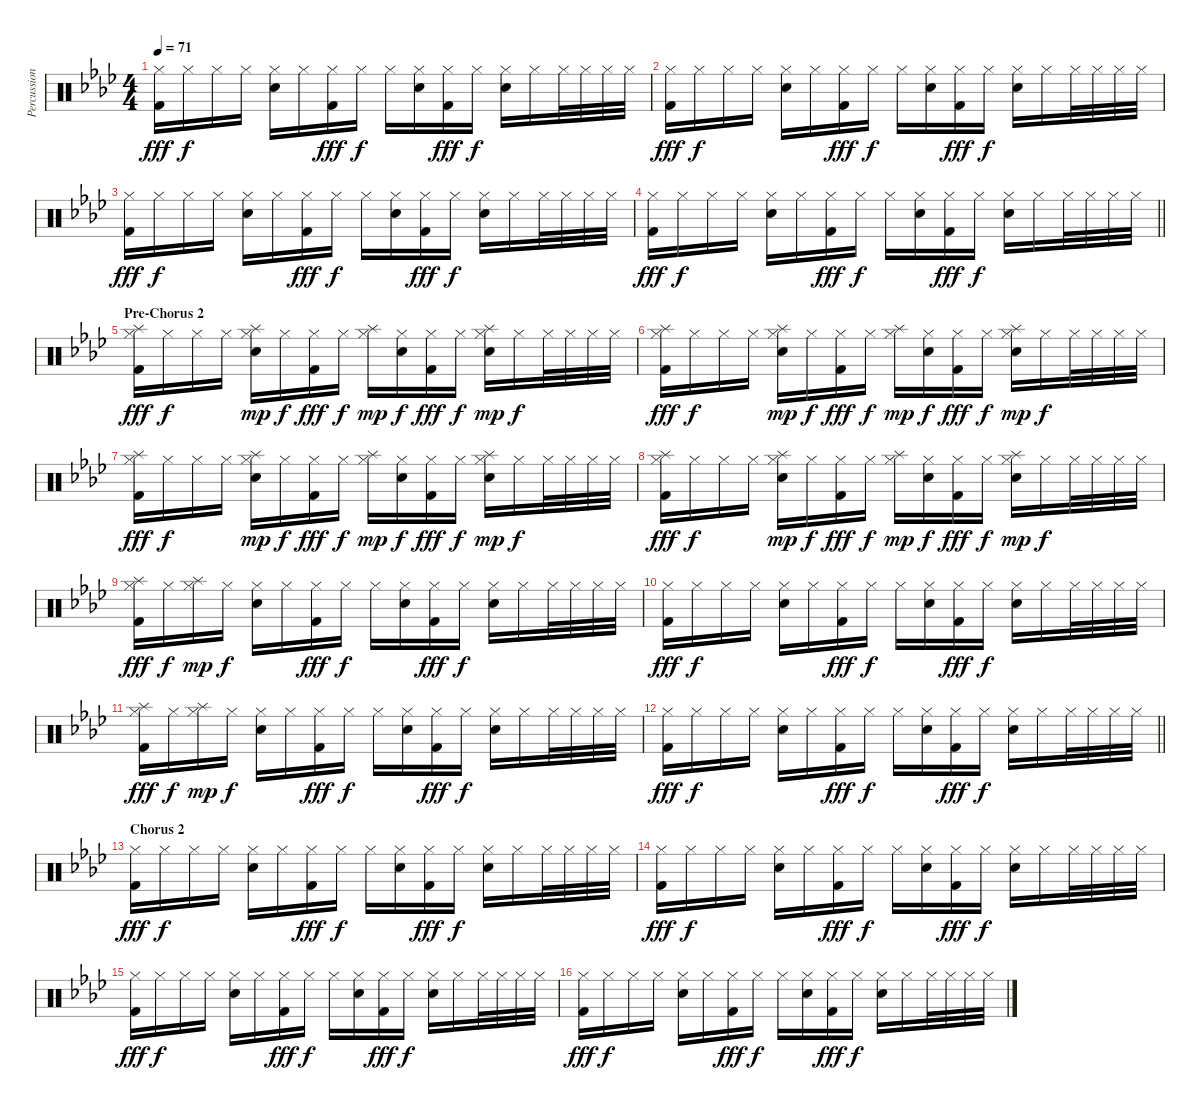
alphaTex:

\track ("Percussion" "Percussion") {instrument percussion}
\staff {score}
\articulation defaults
\ts (4 4)
\tempo 71
\clef neutral
\ks ab
("Hi-Hat (closed)" "Kick (hit) 2").16{dy fff} "Hi-Hat (closed)".16{dy f} "Hi-Hat (closed)".16 "Hi-Hat (closed)".16 ("Hi-Hat (closed)" "Snare (hit) 2").16 "Hi-Hat (closed)".16 ("Hi-Hat (closed)" "Kick (hit) 2").16{dy fff} "Hi-Hat (closed)".16{dy f} "Hi-Hat (closed)".16 ("Hi-Hat (closed)" "Snare (hit) 2").16 ("Hi-Hat (closed)" "Kick (hit) 2").16{dy fff} "Hi-Hat (closed)".16{dy f} ("Hi-Hat (closed)" "Snare (hit) 2").16 "Hi-Hat (closed)".16 "Hi-Hat (closed)".32 "Hi-Hat (closed)".32 "Hi-Hat (closed)".32 "Hi-Hat (closed)".32 |
("Hi-Hat (closed)" "Kick (hit) 2").16{dy fff} "Hi-Hat (closed)".16{dy f} "Hi-Hat (closed)".16 "Hi-Hat (closed)".16 ("Hi-Hat (closed)" "Snare (hit) 2").16 "Hi-Hat (closed)".16 ("Hi-Hat (closed)" "Kick (hit) 2").16{dy fff} "Hi-Hat (closed)".16{dy f} "Hi-Hat (closed)".16 ("Hi-Hat (closed)" "Snare (hit) 2").16 ("Hi-Hat (closed)" "Kick (hit) 2").16{dy fff} "Hi-Hat (closed)".16{dy f} ("Hi-Hat (closed)" "Snare (hit) 2").16 "Hi-Hat (closed)".16 "Hi-Hat (closed)".32 "Hi-Hat (closed)".32 "Hi-Hat (closed)".32 "Hi-Hat (closed)".32 |
("Hi-Hat (closed)" "Kick (hit) 2").16{dy fff} "Hi-Hat (closed)".16{dy f} "Hi-Hat (closed)".16 "Hi-Hat (closed)".16 ("Hi-Hat (closed)" "Snare (hit) 2").16 "Hi-Hat (closed)".16 ("Hi-Hat (closed)" "Kick (hit) 2").16{dy fff} "Hi-Hat (closed)".16{dy f} "Hi-Hat (closed)".16 ("Hi-Hat (closed)" "Snare (hit) 2").16 ("Hi-Hat (closed)" "Kick (hit) 2").16{dy fff} "Hi-Hat (closed)".16{dy f} ("Hi-Hat (closed)" "Snare (hit) 2").16 "Hi-Hat (closed)".16 "Hi-Hat (closed)".32 "Hi-Hat (closed)".32 "Hi-Hat (closed)".32 "Hi-Hat (closed)".32 |
\barLineRight lightlight
("Hi-Hat (closed)" "Kick (hit) 2").16{dy fff} "Hi-Hat (closed)".16{dy f} "Hi-Hat (closed)".16 "Hi-Hat (closed)".16 ("Hi-Hat (closed)" "Snare (hit) 2").16 "Hi-Hat (closed)".16 ("Hi-Hat (closed)" "Kick (hit) 2").16{dy fff} "Hi-Hat (closed)".16{dy f} "Hi-Hat (closed)".16 ("Hi-Hat (closed)" "Snare (hit) 2").16 ("Hi-Hat (closed)" "Kick (hit) 2").16{dy fff} "Hi-Hat (closed)".16{dy f} ("Hi-Hat (closed)" "Snare (hit) 2").16 "Hi-Hat (closed)".16 "Hi-Hat (closed)".32 "Hi-Hat (closed)".32 "Hi-Hat (closed)".32 "Hi-Hat (closed)".32 |
\section ("" "Pre-Chorus 2")
("Splash (hit)" "Hi-Hat (closed)" "Kick (hit) 2").16{dy fff} "Hi-Hat (closed)".16{dy f} "Hi-Hat (closed)".16 "Hi-Hat (closed)".16 ("Splash (hit)" "Hi-Hat (closed)" "Snare (hit) 2").16{dy mp} "Hi-Hat (closed)".16{dy f} ("Hi-Hat (closed)" "Kick (hit) 2").16{dy fff} "Hi-Hat (closed)".16{dy f} ("Splash (hit)" "Hi-Hat (closed)").16{dy mp} ("Hi-Hat (closed)" "Snare (hit) 2").16{dy f} ("Hi-Hat (closed)" "Kick (hit) 2").16{dy fff} "Hi-Hat (closed)".16{dy f} ("Splash (hit)" "Hi-Hat (closed)" "Snare (hit) 2").16{dy mp} "Hi-Hat (closed)".16{dy f} "Hi-Hat (closed)".32 "Hi-Hat (closed)".32 "Hi-Hat (closed)".32 "Hi-Hat (closed)".32 |
("Splash (hit)" "Hi-Hat (closed)" "Kick (hit) 2").16{dy fff} "Hi-Hat (closed)".16{dy f} "Hi-Hat (closed)".16 "Hi-Hat (closed)".16 ("Splash (hit)" "Hi-Hat (closed)" "Snare (hit) 2").16{dy mp} "Hi-Hat (closed)".16{dy f} ("Hi-Hat (closed)" "Kick (hit) 2").16{dy fff} "Hi-Hat (closed)".16{dy f} ("Splash (hit)" "Hi-Hat (closed)").16{dy mp} ("Hi-Hat (closed)" "Snare (hit) 2").16{dy f} ("Hi-Hat (closed)" "Kick (hit) 2").16{dy fff} "Hi-Hat (closed)".16{dy f} ("Splash (hit)" "Hi-Hat (closed)" "Snare (hit) 2").16{dy mp} "Hi-Hat (closed)".16{dy f} "Hi-Hat (closed)".32 "Hi-Hat (closed)".32 "Hi-Hat (closed)".32 "Hi-Hat (closed)".32 |
("Splash (hit)" "Hi-Hat (closed)" "Kick (hit) 2").16{dy fff} "Hi-Hat (closed)".16{dy f} "Hi-Hat (closed)".16 "Hi-Hat (closed)".16 ("Splash (hit)" "Hi-Hat (closed)" "Snare (hit) 2").16{dy mp} "Hi-Hat (closed)".16{dy f} ("Hi-Hat (closed)" "Kick (hit) 2").16{dy fff} "Hi-Hat (closed)".16{dy f} ("Splash (hit)" "Hi-Hat (closed)").16{dy mp} ("Hi-Hat (closed)" "Snare (hit) 2").16{dy f} ("Hi-Hat (closed)" "Kick (hit) 2").16{dy fff} "Hi-Hat (closed)".16{dy f} ("Splash (hit)" "Hi-Hat (closed)" "Snare (hit) 2").16{dy mp} "Hi-Hat (closed)".16{dy f} "Hi-Hat (closed)".32 "Hi-Hat (closed)".32 "Hi-Hat (closed)".32 "Hi-Hat (closed)".32 |
("Splash (hit)" "Hi-Hat (closed)" "Kick (hit) 2").16{dy fff} "Hi-Hat (closed)".16{dy f} "Hi-Hat (closed)".16 "Hi-Hat (closed)".16 ("Splash (hit)" "Hi-Hat (closed)" "Snare (hit) 2").16{dy mp} "Hi-Hat (closed)".16{dy f} ("Hi-Hat (closed)" "Kick (hit) 2").16{dy fff} "Hi-Hat (closed)".16{dy f} ("Splash (hit)" "Hi-Hat (closed)").16{dy mp} ("Hi-Hat (closed)" "Snare (hit) 2").16{dy f} ("Hi-Hat (closed)" "Kick (hit) 2").16{dy fff} "Hi-Hat (closed)".16{dy f} ("Splash (hit)" "Hi-Hat (closed)" "Snare (hit) 2").16{dy mp} "Hi-Hat (closed)".16{dy f} "Hi-Hat (closed)".32 "Hi-Hat (closed)".32 "Hi-Hat (closed)".32 "Hi-Hat (closed)".32 |
("Splash (hit)" "Hi-Hat (closed)" "Kick (hit) 2").16{dy fff} "Hi-Hat (closed)".16{dy f} ("Splash (hit)" "Hi-Hat (closed)").16{dy mp} "Hi-Hat (closed)".16{dy f} ("Hi-Hat (closed)" "Snare (hit) 2").16 "Hi-Hat (closed)".16 ("Hi-Hat (closed)" "Kick (hit) 2").16{dy fff} "Hi-Hat (closed)".16{dy f} "Hi-Hat (closed)".16 ("Hi-Hat (closed)" "Snare (hit) 2").16 ("Hi-Hat (closed)" "Kick (hit) 2").16{dy fff} "Hi-Hat (closed)".16{dy f} ("Hi-Hat (closed)" "Snare (hit) 2").16 "Hi-Hat (closed)".16 "Hi-Hat (closed)".32 "Hi-Hat (closed)".32 "Hi-Hat (closed)".32 "Hi-Hat (closed)".32 |
("Hi-Hat (closed)" "Kick (hit) 2").16{dy fff} "Hi-Hat (closed)".16{dy f} "Hi-Hat (closed)".16 "Hi-Hat (closed)".16 ("Hi-Hat (closed)" "Snare (hit) 2").16 "Hi-Hat (closed)".16 ("Hi-Hat (closed)" "Kick (hit) 2").16{dy fff} "Hi-Hat (closed)".16{dy f} "Hi-Hat (closed)".16 ("Hi-Hat (closed)" "Snare (hit) 2").16 ("Hi-Hat (closed)" "Kick (hit) 2").16{dy fff} "Hi-Hat (closed)".16{dy f} ("Hi-Hat (closed)" "Snare (hit) 2").16 "Hi-Hat (closed)".16 "Hi-Hat (closed)".32 "Hi-Hat (closed)".32 "Hi-Hat (closed)".32 "Hi-Hat (closed)".32 |
("Splash (hit)" "Hi-Hat (closed)" "Kick (hit) 2").16{dy fff} "Hi-Hat (closed)".16{dy f} ("Splash (hit)" "Hi-Hat (closed)").16{dy mp} "Hi-Hat (closed)".16{dy f} ("Hi-Hat (closed)" "Snare (hit) 2").16 "Hi-Hat (closed)".16 ("Hi-Hat (closed)" "Kick (hit) 2").16{dy fff} "Hi-Hat (closed)".16{dy f} "Hi-Hat (closed)".16 ("Hi-Hat (closed)" "Snare (hit) 2").16 ("Hi-Hat (closed)" "Kick (hit) 2").16{dy fff} "Hi-Hat (closed)".16{dy f} ("Hi-Hat (closed)" "Snare (hit) 2").16 "Hi-Hat (closed)".16 "Hi-Hat (closed)".32 "Hi-Hat (closed)".32 "Hi-Hat (closed)".32 "Hi-Hat (closed)".32 |
\barLineRight lightlight
("Hi-Hat (closed)" "Kick (hit) 2").16{dy fff} "Hi-Hat (closed)".16{dy f} "Hi-Hat (closed)".16 "Hi-Hat (closed)".16 ("Hi-Hat (closed)" "Snare (hit) 2").16 "Hi-Hat (closed)".16 ("Hi-Hat (closed)" "Kick (hit) 2").16{dy fff} "Hi-Hat (closed)".16{dy f} "Hi-Hat (closed)".16 ("Hi-Hat (closed)" "Snare (hit) 2").16 ("Hi-Hat (closed)" "Kick (hit) 2").16{dy fff} "Hi-Hat (closed)".16{dy f} ("Hi-Hat (closed)" "Snare (hit) 2").16 "Hi-Hat (closed)".16 "Hi-Hat (closed)".32 "Hi-Hat (closed)".32 "Hi-Hat (closed)".32 "Hi-Hat (closed)".32 |
\section ("" "Chorus 2")
("Hi-Hat (closed)" "Kick (hit) 2").16{dy fff} "Hi-Hat (closed)".16{dy f} "Hi-Hat (closed)".16 "Hi-Hat (closed)".16 ("Hi-Hat (closed)" "Snare (hit) 2").16 "Hi-Hat (closed)".16 ("Hi-Hat (closed)" "Kick (hit) 2").16{dy fff} "Hi-Hat (closed)".16{dy f} "Hi-Hat (closed)".16 ("Hi-Hat (closed)" "Snare (hit) 2").16 ("Hi-Hat (closed)" "Kick (hit) 2").16{dy fff} "Hi-Hat (closed)".16{dy f} ("Hi-Hat (closed)" "Snare (hit) 2").16 "Hi-Hat (closed)".16 "Hi-Hat (closed)".32 "Hi-Hat (closed)".32 "Hi-Hat (closed)".32 "Hi-Hat (closed)".32 |
("Hi-Hat (closed)" "Kick (hit) 2").16{dy fff} "Hi-Hat (closed)".16{dy f} "Hi-Hat (closed)".16 "Hi-Hat (closed)".16 ("Hi-Hat (closed)" "Snare (hit) 2").16 "Hi-Hat (closed)".16 ("Hi-Hat (closed)" "Kick (hit) 2").16{dy fff} "Hi-Hat (closed)".16{dy f} "Hi-Hat (closed)".16 ("Hi-Hat (closed)" "Snare (hit) 2").16 ("Hi-Hat (closed)" "Kick (hit) 2").16{dy fff} "Hi-Hat (closed)".16{dy f} ("Hi-Hat (closed)" "Snare (hit) 2").16 "Hi-Hat (closed)".16 "Hi-Hat (closed)".32 "Hi-Hat (closed)".32 "Hi-Hat (closed)".32 "Hi-Hat (closed)".32 |
("Hi-Hat (closed)" "Kick (hit) 2").16{dy fff} "Hi-Hat (closed)".16{dy f} "Hi-Hat (closed)".16 "Hi-Hat (closed)".16 ("Hi-Hat (closed)" "Snare (hit) 2").16 "Hi-Hat (closed)".16 ("Hi-Hat (closed)" "Kick (hit) 2").16{dy fff} "Hi-Hat (closed)".16{dy f} "Hi-Hat (closed)".16 ("Hi-Hat (closed)" "Snare (hit) 2").16 ("Hi-Hat (closed)" "Kick (hit) 2").16{dy fff} "Hi-Hat (closed)".16{dy f} ("Hi-Hat (closed)" "Snare (hit) 2").16 "Hi-Hat (closed)".16 "Hi-Hat (closed)".32 "Hi-Hat (closed)".32 "Hi-Hat (closed)".32 "Hi-Hat (closed)".32 |
("Hi-Hat (closed)" "Kick (hit) 2").16{dy fff} "Hi-Hat (closed)".16{dy f} "Hi-Hat (closed)".16 "Hi-Hat (closed)".16 ("Hi-Hat (closed)" "Snare (hit) 2").16 "Hi-Hat (closed)".16 ("Hi-Hat (closed)" "Kick (hit) 2").16{dy fff} "Hi-Hat (closed)".16{dy f} "Hi-Hat (closed)".16 ("Hi-Hat (closed)" "Snare (hit) 2").16 ("Hi-Hat (closed)" "Kick (hit) 2").16{dy fff} "Hi-Hat (closed)".16{dy f} ("Hi-Hat (closed)" "Snare (hit) 2").16 "Hi-Hat (closed)".16 "Hi-Hat (closed)".32 "Hi-Hat (closed)".32 "Hi-Hat (closed)".32 "Hi-Hat (closed)".32
